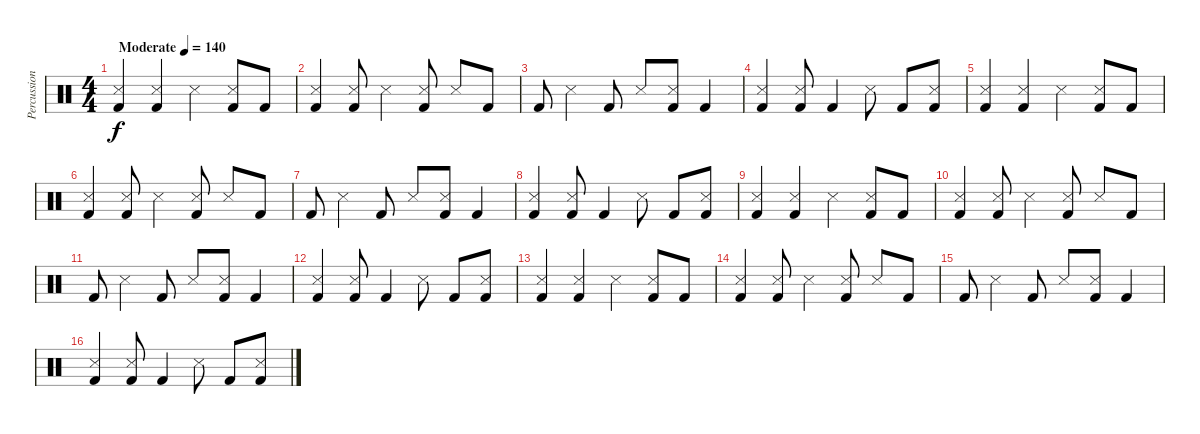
\track ("Percussion" "Percussion") {instrument percussion}
\staff {score}
\articulation defaults
\ts (4 4)
\tempo (140 "Moderate")
\clef neutral
\ks c
("Kick (hit) 2" "Snare (side stick) 3").4{dy f} ("Kick (hit) 2" "Snare (side stick) 3").4 "Snare (side stick) 3".4 ("Kick (hit) 2" "Snare (side stick) 3").8 "Kick (hit) 2".8 |
("Kick (hit) 2" "Snare (side stick) 3").4 ("Kick (hit) 2" "Snare (side stick) 3").8 "Snare (side stick) 3".4 ("Kick (hit) 2" "Snare (side stick) 3").8 "Snare (side stick) 3".8 "Kick (hit) 2".8 |
"Kick (hit) 2".8 "Snare (side stick) 3".4 "Kick (hit) 2".8 "Snare (side stick) 3".8 ("Kick (hit) 2" "Snare (side stick) 3").8 "Kick (hit) 2".4 |
("Kick (hit) 2" "Snare (side stick) 3").4 ("Kick (hit) 2" "Snare (side stick) 3").8 "Kick (hit) 2".4 "Snare (side stick) 3".8 "Kick (hit) 2".8 ("Kick (hit) 2" "Snare (side stick) 3").8 |
("Kick (hit) 2" "Snare (side stick) 3").4 ("Kick (hit) 2" "Snare (side stick) 3").4 "Snare (side stick) 3".4 ("Kick (hit) 2" "Snare (side stick) 3").8 "Kick (hit) 2".8 |
("Kick (hit) 2" "Snare (side stick) 3").4 ("Kick (hit) 2" "Snare (side stick) 3").8 "Snare (side stick) 3".4 ("Kick (hit) 2" "Snare (side stick) 3").8 "Snare (side stick) 3".8 "Kick (hit) 2".8 |
"Kick (hit) 2".8 "Snare (side stick) 3".4 "Kick (hit) 2".8 "Snare (side stick) 3".8 ("Kick (hit) 2" "Snare (side stick) 3").8 "Kick (hit) 2".4 |
("Kick (hit) 2" "Snare (side stick) 3").4 ("Kick (hit) 2" "Snare (side stick) 3").8 "Kick (hit) 2".4 "Snare (side stick) 3".8 "Kick (hit) 2".8 ("Kick (hit) 2" "Snare (side stick) 3").8 |
("Kick (hit) 2" "Snare (side stick) 3").4 ("Kick (hit) 2" "Snare (side stick) 3").4 "Snare (side stick) 3".4 ("Kick (hit) 2" "Snare (side stick) 3").8 "Kick (hit) 2".8 |
("Kick (hit) 2" "Snare (side stick) 3").4 ("Kick (hit) 2" "Snare (side stick) 3").8 "Snare (side stick) 3".4 ("Kick (hit) 2" "Snare (side stick) 3").8 "Snare (side stick) 3".8 "Kick (hit) 2".8 |
"Kick (hit) 2".8 "Snare (side stick) 3".4 "Kick (hit) 2".8 "Snare (side stick) 3".8 ("Kick (hit) 2" "Snare (side stick) 3").8 "Kick (hit) 2".4 |
("Kick (hit) 2" "Snare (side stick) 3").4 ("Kick (hit) 2" "Snare (side stick) 3").8 "Kick (hit) 2".4 "Snare (side stick) 3".8 "Kick (hit) 2".8 ("Kick (hit) 2" "Snare (side stick) 3").8 |
("Kick (hit) 2" "Snare (side stick) 3").4 ("Kick (hit) 2" "Snare (side stick) 3").4 "Snare (side stick) 3".4 ("Kick (hit) 2" "Snare (side stick) 3").8 "Kick (hit) 2".8 |
("Kick (hit) 2" "Snare (side stick) 3").4 ("Kick (hit) 2" "Snare (side stick) 3").8 "Snare (side stick) 3".4 ("Kick (hit) 2" "Snare (side stick) 3").8 "Snare (side stick) 3".8 "Kick (hit) 2".8 |
"Kick (hit) 2".8 "Snare (side stick) 3".4 "Kick (hit) 2".8 "Snare (side stick) 3".8 ("Kick (hit) 2" "Snare (side stick) 3").8 "Kick (hit) 2".4 |
("Kick (hit) 2" "Snare (side stick) 3").4 ("Kick (hit) 2" "Snare (side stick) 3").8 "Kick (hit) 2".4 "Snare (side stick) 3".8 "Kick (hit) 2".8 ("Kick (hit) 2" "Snare (side stick) 3").8
